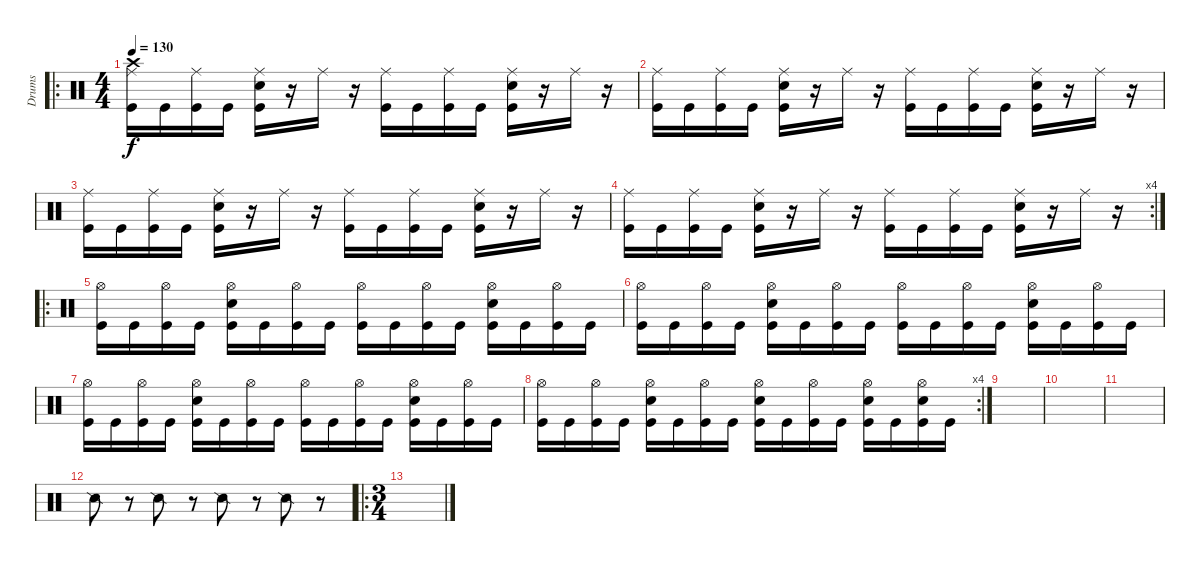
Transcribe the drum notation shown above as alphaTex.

\track ("Drums" "Drums") {instrument percussion}
\staff {score}
\articulation defaults
\ro
\ts (4 4)
\tempo 130
\clef neutral
\ks c
("Ride (middle)" "Crash high (hit)" "Kick (hit)").16{dy f} "Kick (hit)".16 ("Ride (middle)" "Kick (hit)").16 "Kick (hit)".16 ("Ride (middle)" "Electric Snare (hit)" "Kick (hit)").16 r.16 "Ride (middle)".16 r.16 ("Ride (middle)" "Kick (hit)").16 "Kick (hit)".16 ("Ride (middle)" "Kick (hit)").16 "Kick (hit)".16 ("Ride (middle)" "Electric Snare (hit)" "Kick (hit)").16 r.16 "Ride (middle)".16 r.16 |
("Ride (middle)" "Kick (hit)").16 "Kick (hit)".16 ("Ride (middle)" "Kick (hit)").16 "Kick (hit)".16 ("Ride (middle)" "Electric Snare (hit)" "Kick (hit)").16 r.16 "Ride (middle)".16 r.16 ("Ride (middle)" "Kick (hit)").16 "Kick (hit)".16 ("Ride (middle)" "Kick (hit)").16 "Kick (hit)".16 ("Ride (middle)" "Electric Snare (hit)" "Kick (hit)").16 r.16 "Ride (middle)".16 r.16 |
("Ride (middle)" "Kick (hit)").16 "Kick (hit)".16 ("Ride (middle)" "Kick (hit)").16 "Kick (hit)".16 ("Ride (middle)" "Electric Snare (hit)" "Kick (hit)").16 r.16 "Ride (middle)".16 r.16 ("Ride (middle)" "Kick (hit)").16 "Kick (hit)".16 ("Ride (middle)" "Kick (hit)").16 "Kick (hit)".16 ("Ride (middle)" "Electric Snare (hit)" "Kick (hit)").16 r.16 "Ride (middle)".16 r.16 |
\rc 4
("Ride (middle)" "Kick (hit)").16 "Kick (hit)".16 ("Ride (middle)" "Kick (hit)").16 "Kick (hit)".16 ("Ride (middle)" "Electric Snare (hit)" "Kick (hit)").16 r.16 "Ride (middle)".16 r.16 ("Ride (middle)" "Kick (hit)").16 "Kick (hit)".16 ("Ride (middle)" "Kick (hit)").16 "Kick (hit)".16 ("Ride (middle)" "Electric Snare (hit)" "Kick (hit)").16 r.16 "Ride (middle)".16 r.16 |
\ro
("Hi-Hat (open)" "Kick (hit)").16 "Kick (hit)".16 ("Hi-Hat (open)" "Kick (hit)").16 "Kick (hit)".16 ("Hi-Hat (open)" "Electric Snare (hit)" "Kick (hit)").16 "Kick (hit)".16 ("Hi-Hat (open)" "Kick (hit)").16 "Kick (hit)".16 ("Hi-Hat (open)" "Kick (hit)").16 "Kick (hit)".16 ("Hi-Hat (open)" "Kick (hit)").16 "Kick (hit)".16 ("Hi-Hat (open)" "Electric Snare (hit)" "Kick (hit)").16 "Kick (hit)".16 ("Hi-Hat (open)" "Kick (hit)").16 "Kick (hit)".16 |
("Hi-Hat (open)" "Kick (hit)").16 "Kick (hit)".16 ("Hi-Hat (open)" "Kick (hit)").16 "Kick (hit)".16 ("Hi-Hat (open)" "Electric Snare (hit)" "Kick (hit)").16 "Kick (hit)".16 ("Hi-Hat (open)" "Kick (hit)").16 "Kick (hit)".16 ("Hi-Hat (open)" "Kick (hit)").16 "Kick (hit)".16 ("Hi-Hat (open)" "Kick (hit)").16 "Kick (hit)".16 ("Hi-Hat (open)" "Electric Snare (hit)" "Kick (hit)").16 "Kick (hit)".16 ("Hi-Hat (open)" "Kick (hit)").16 "Kick (hit)".16 |
("Hi-Hat (open)" "Kick (hit)").16 "Kick (hit)".16 ("Hi-Hat (open)" "Kick (hit)").16 "Kick (hit)".16 ("Hi-Hat (open)" "Electric Snare (hit)" "Kick (hit)").16 "Kick (hit)".16 ("Hi-Hat (open)" "Kick (hit)").16 "Kick (hit)".16 ("Hi-Hat (open)" "Kick (hit)").16 "Kick (hit)".16 ("Hi-Hat (open)" "Kick (hit)").16 "Kick (hit)".16 ("Hi-Hat (open)" "Electric Snare (hit)" "Kick (hit)").16 "Kick (hit)".16 ("Hi-Hat (open)" "Kick (hit)").16 "Kick (hit)".16 |
\rc 4
("Hi-Hat (open)" "Kick (hit)").16 "Kick (hit)".16 ("Hi-Hat (open)" "Kick (hit)").16 "Kick (hit)".16 ("Hi-Hat (open)" "Electric Snare (hit)" "Kick (hit)").16 "Kick (hit)".16 ("Hi-Hat (open)" "Kick (hit)").16 "Kick (hit)".16 ("Hi-Hat (open)" "Electric Snare (hit)" "Kick (hit)").16 "Kick (hit)".16 ("Hi-Hat (open)" "Kick (hit)").16 "Kick (hit)".16 ("Hi-Hat (open)" "Electric Snare (hit)" "Kick (hit)").16 "Kick (hit)".16 ("Hi-Hat (open)" "Electric Snare (hit)" "Kick (hit)").16 "Kick (hit)".16 |
|
|
|
"Snare (side stick) 2".8 r.8 "Snare (side stick) 2".8 r.8 "Snare (side stick) 2".8 r.8 "Snare (side stick) 2".8 r.8 |
\ro
\ts (3 4)
